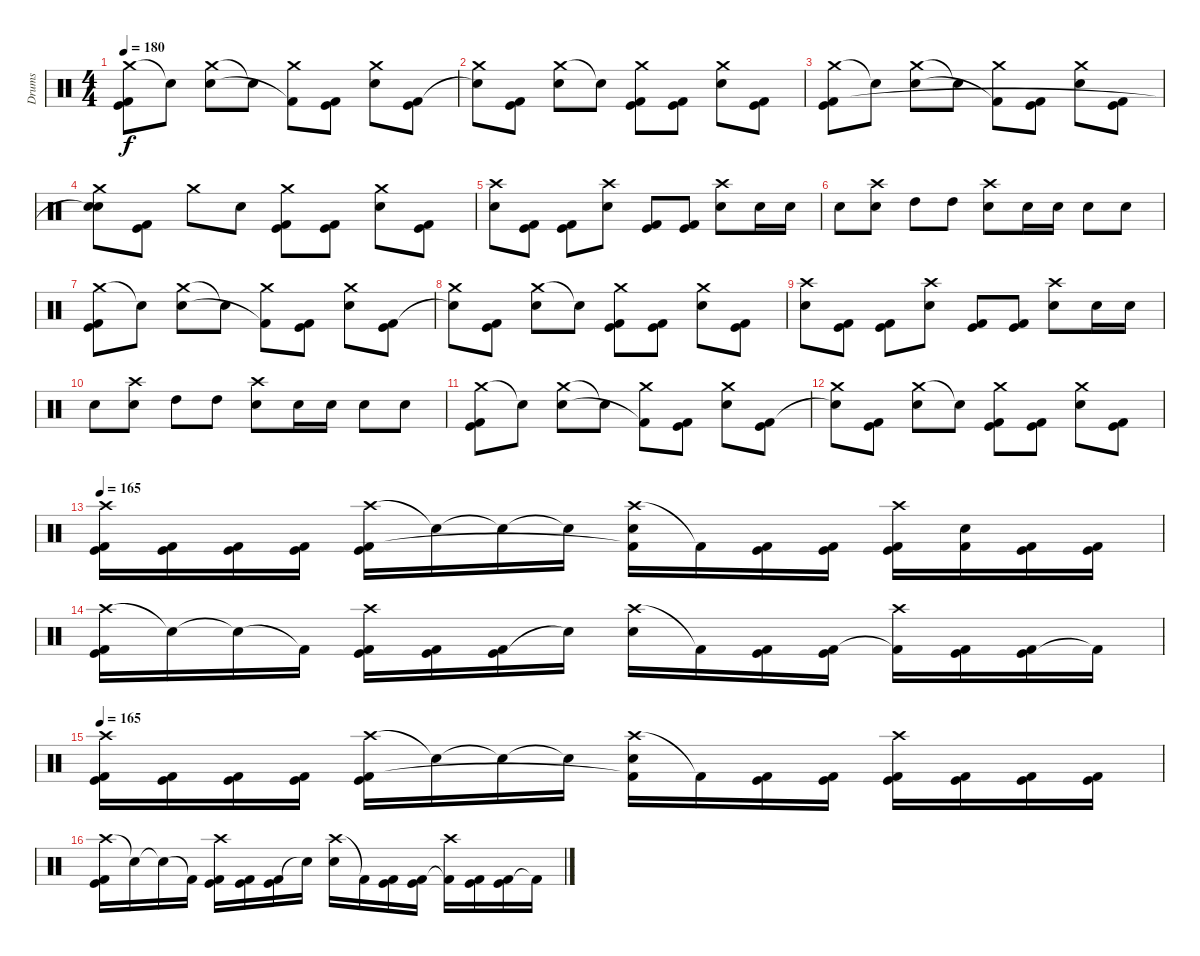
\track ("Drums" "Drums") {instrument percussion}
\staff {score}
\articulation defaults
\ts (4 4)
\tempo 180
\clef neutral
\ks c
("Crash medium (hit)" "Kick (hit)" "Kick (hit) 2").8{dy f} "Snare (hit)"{t}.8 ("Crash medium (hit)" "Electric Snare (hit)").8 "Snare (hit)"{t}.8 ("Crash medium (hit)" "Kick (hit) 2"{t}).8 ("Kick (hit)" "Kick (hit) 2").8 ("Crash medium (hit)" "Electric Snare (hit)").8 ("Kick (hit)" "Kick (hit) 2").8 |
("Crash medium (hit)" "Snare (hit)"{t}).8 ("Kick (hit)" "Kick (hit) 2").8 ("Crash medium (hit)" "Electric Snare (hit)").8 "Snare (hit)"{t}.8 ("Crash medium (hit)" "Kick (hit)" "Kick (hit) 2").8 ("Kick (hit)" "Kick (hit) 2").8 ("Crash medium (hit)" "Electric Snare (hit)").8 ("Kick (hit)" "Kick (hit) 2").8 |
("Crash medium (hit)" "Kick (hit)" "Kick (hit) 2").8 "Snare (hit)"{t}.8 ("Crash medium (hit)" "Electric Snare (hit)").8 "Snare (hit)"{t}.8 ("Crash medium (hit)" "Kick (hit) 2"{t}).8 ("Kick (hit)" "Kick (hit) 2").8 ("Crash medium (hit)" "Electric Snare (hit)").8 ("Kick (hit)" "Kick (hit) 2").8 |
("Crash medium (hit)" "Electric Snare (hit)" "Snare (hit)"{t}).8 ("Kick (hit)" "Kick (hit) 2").8 "Crash medium (hit)".8 "Electric Snare (hit)".8 ("Crash medium (hit)" "Kick (hit)" "Kick (hit) 2").8 ("Kick (hit)" "Kick (hit) 2").8 ("Crash medium (hit)" "Electric Snare (hit)").8 ("Kick (hit)" "Kick (hit) 2").8 |
("Crash high (hit)" "Electric Snare (hit)").8 ("Kick (hit)" "Kick (hit) 2").8 ("Kick (hit)" "Kick (hit) 2").8 ("Crash high (hit)" "Electric Snare (hit)").8 ("Kick (hit)" "Kick (hit) 2").8 ("Kick (hit)" "Kick (hit) 2").8 ("Crash high (hit)" "Electric Snare (hit)").8 "Electric Snare (hit)".16 "Electric Snare (hit)".16 |
"Electric Snare (hit)".8 ("Crash high (hit)" "Electric Snare (hit)").8 "High Tom (hit)".8 "High Tom (hit)".8 ("Crash high (hit)" "Electric Snare (hit)").8 "Electric Snare (hit)".16 "Electric Snare (hit)".16 "Electric Snare (hit)".8 "Electric Snare (hit)".8 |
("Crash medium (hit)" "Kick (hit)" "Kick (hit) 2").8 "Snare (hit)"{t}.8 ("Crash medium (hit)" "Electric Snare (hit)").8 "Snare (hit)"{t}.8 ("Crash medium (hit)" "Kick (hit) 2"{t}).8 ("Kick (hit)" "Kick (hit) 2").8 ("Crash medium (hit)" "Electric Snare (hit)").8 ("Kick (hit)" "Kick (hit) 2").8 |
("Crash medium (hit)" "Snare (hit)"{t}).8 ("Kick (hit)" "Kick (hit) 2").8 ("Crash medium (hit)" "Electric Snare (hit)").8 "Snare (hit)"{t}.8 ("Crash medium (hit)" "Kick (hit)" "Kick (hit) 2").8 ("Kick (hit)" "Kick (hit) 2").8 ("Crash medium (hit)" "Electric Snare (hit)").8 ("Kick (hit)" "Kick (hit) 2").8 |
("Crash high (hit)" "Electric Snare (hit)").8 ("Kick (hit)" "Kick (hit) 2").8 ("Kick (hit)" "Kick (hit) 2").8 ("Crash high (hit)" "Electric Snare (hit)").8 ("Kick (hit)" "Kick (hit) 2").8 ("Kick (hit)" "Kick (hit) 2").8 ("Crash high (hit)" "Electric Snare (hit)").8 "Electric Snare (hit)".16 "Electric Snare (hit)".16 |
"Electric Snare (hit)".8 ("Crash high (hit)" "Electric Snare (hit)").8 "High Tom (hit)".8 "High Tom (hit)".8 ("Crash high (hit)" "Electric Snare (hit)").8 "Electric Snare (hit)".16 "Electric Snare (hit)".16 "Electric Snare (hit)".8 "Electric Snare (hit)".8 |
("Crash medium (hit)" "Kick (hit)" "Kick (hit) 2").8 "Snare (hit)"{t}.8 ("Crash medium (hit)" "Electric Snare (hit)").8 "Snare (hit)"{t}.8 ("Crash medium (hit)" "Kick (hit) 2"{t}).8 ("Kick (hit)" "Kick (hit) 2").8 ("Crash medium (hit)" "Electric Snare (hit)").8 ("Kick (hit)" "Kick (hit) 2").8 |
("Crash medium (hit)" "Snare (hit)"{t}).8 ("Kick (hit)" "Kick (hit) 2").8 ("Crash medium (hit)" "Electric Snare (hit)").8 "Snare (hit)"{t}.8 ("Crash medium (hit)" "Kick (hit)" "Kick (hit) 2").8 ("Kick (hit)" "Kick (hit) 2").8 ("Crash medium (hit)" "Electric Snare (hit)").8 ("Kick (hit)" "Kick (hit) 2").8 |
\tempo 165
("Crash high (hit)" "Kick (hit)" "Kick (hit) 2").16 ("Kick (hit)" "Kick (hit) 2").16 ("Kick (hit)" "Kick (hit) 2").16 ("Kick (hit)" "Kick (hit) 2").16 ("Crash high (hit)" "Kick (hit)" "Kick (hit) 2").16 "Snare (hit)"{t}.16 "Snare (hit)"{t}.16 "Snare (hit)"{t}.16 ("Crash high (hit)" "Electric Snare (hit)" "Kick (hit) 2"{t}).16 "Kick (hit) 2"{t}.16 ("Kick (hit)" "Kick (hit) 2").16 ("Kick (hit)" "Kick (hit) 2").16 ("Crash high (hit)" "Kick (hit)" "Kick (hit) 2").16 ("Snare (hit)" "Kick (hit) 2").16 ("Kick (hit)" "Kick (hit) 2").16 ("Kick (hit)" "Kick (hit) 2").16 |
("Crash high (hit)" "Kick (hit)" "Kick (hit) 2").16 "Snare (hit)"{t}.16 "Snare (hit)"{t}.16 "Kick (hit) 2"{t}.16 ("Crash high (hit)" "Kick (hit)" "Kick (hit) 2").16 ("Kick (hit)" "Kick (hit) 2").16 ("Kick (hit)" "Kick (hit) 2").16 "Snare (hit)"{t}.16 ("Crash high (hit)" "Electric Snare (hit)").16 "Kick (hit) 2"{t}.16 ("Kick (hit)" "Kick (hit) 2").16 ("Kick (hit)" "Kick (hit) 2").16 ("Crash high (hit)" "Kick (hit) 2"{t}).16 ("Kick (hit)" "Kick (hit) 2").16 ("Kick (hit)" "Kick (hit) 2").16 "Kick (hit) 2"{t}.16 |
\tempo 165
("Crash high (hit)" "Kick (hit)" "Kick (hit) 2").16 ("Kick (hit)" "Kick (hit) 2").16 ("Kick (hit)" "Kick (hit) 2").16 ("Kick (hit)" "Kick (hit) 2").16 ("Crash high (hit)" "Kick (hit)" "Kick (hit) 2").16 "Snare (hit)"{t}.16 "Snare (hit)"{t}.16 "Snare (hit)"{t}.16 ("Crash high (hit)" "Electric Snare (hit)" "Kick (hit) 2"{t}).16 "Kick (hit) 2"{t}.16 ("Kick (hit)" "Kick (hit) 2").16 ("Kick (hit)" "Kick (hit) 2").16 ("Crash high (hit)" "Kick (hit)" "Kick (hit) 2").16 ("Kick (hit)" "Kick (hit) 2").16 ("Kick (hit)" "Kick (hit) 2").16 ("Kick (hit)" "Kick (hit) 2").16 |
("Crash high (hit)" "Kick (hit)" "Kick (hit) 2").16 "Snare (hit)"{t}.16 "Snare (hit)"{t}.16 "Kick (hit) 2"{t}.16 ("Crash high (hit)" "Kick (hit)" "Kick (hit) 2").16 ("Kick (hit)" "Kick (hit) 2").16 ("Kick (hit)" "Kick (hit) 2").16 "Snare (hit)"{t}.16 ("Crash high (hit)" "Electric Snare (hit)").16 "Kick (hit) 2"{t}.16 ("Kick (hit)" "Kick (hit) 2").16 ("Kick (hit)" "Kick (hit) 2").16 ("Crash high (hit)" "Kick (hit) 2"{t}).16 ("Kick (hit)" "Kick (hit) 2").16 ("Kick (hit)" "Kick (hit) 2").16 "Kick (hit) 2"{t}.16
